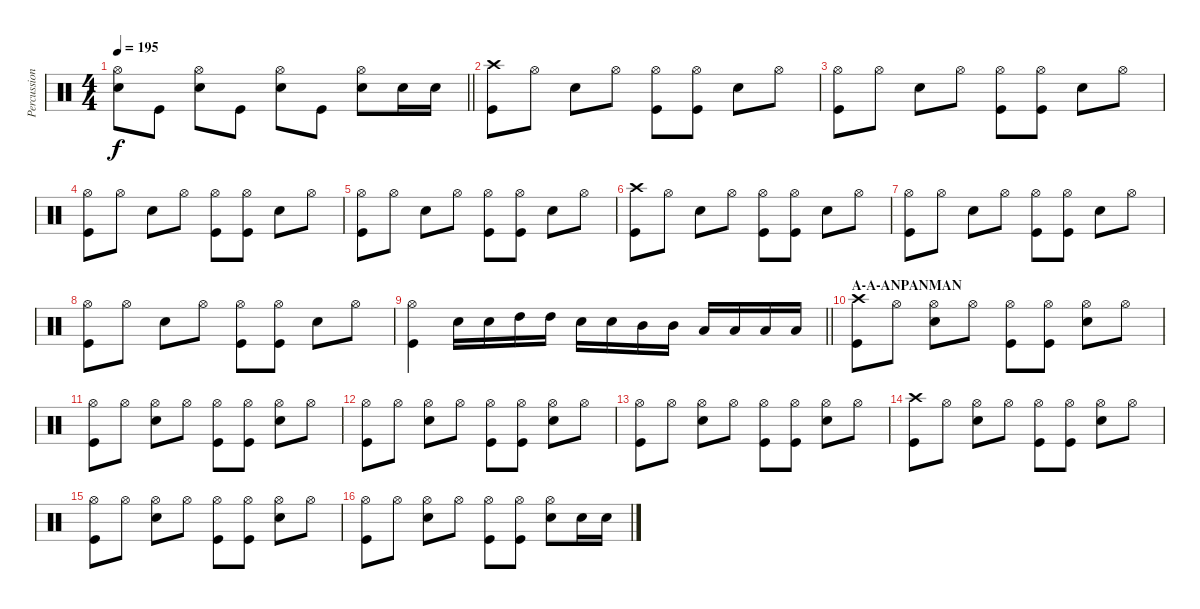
\track ("Percussion" "Percussion") {instrument percussion}
\staff {score}
\articulation defaults
\ts (4 4)
\tempo 195
\clef neutral
\barLineRight lightlight
\ks c
("Hi-Hat (open)" "Snare (hit) 2").8{dy f} "Kick (hit)".8 ("Hi-Hat (open)" "Snare (hit) 2").8 "Kick (hit)".8 ("Hi-Hat (open)" "Snare (hit) 2").8 "Kick (hit)".8 ("Hi-Hat (open)" "Snare (hit) 2").8 "Snare (hit) 2".16 "Snare (hit) 2".16 |
\section ("" "")
("Crash high (hit)" "Kick (hit)").8 "Hi-Hat (open)".8 "Snare (hit) 2".8 "Hi-Hat (open)".8 ("Hi-Hat (open)" "Kick (hit)").8 ("Hi-Hat (open)" "Kick (hit)").8 "Snare (hit) 2".8 "Hi-Hat (open)".8 |
("Hi-Hat (open)" "Kick (hit)").8 "Hi-Hat (open)".8 "Snare (hit) 2".8 "Hi-Hat (open)".8 ("Hi-Hat (open)" "Kick (hit)").8 ("Hi-Hat (open)" "Kick (hit)").8 "Snare (hit) 2".8 "Hi-Hat (open)".8 |
("Hi-Hat (open)" "Kick (hit)").8 "Hi-Hat (open)".8 "Snare (hit) 2".8 "Hi-Hat (open)".8 ("Hi-Hat (open)" "Kick (hit)").8 ("Hi-Hat (open)" "Kick (hit)").8 "Snare (hit) 2".8 "Hi-Hat (open)".8 |
("Hi-Hat (open)" "Kick (hit)").8 "Hi-Hat (open)".8 "Snare (hit) 2".8 "Hi-Hat (open)".8 ("Hi-Hat (open)" "Kick (hit)").8 ("Hi-Hat (open)" "Kick (hit)").8 "Snare (hit) 2".8 "Hi-Hat (open)".8 |
("Crash high (hit)" "Kick (hit)").8 "Hi-Hat (open)".8 "Snare (hit) 2".8 "Hi-Hat (open)".8 ("Hi-Hat (open)" "Kick (hit)").8 ("Hi-Hat (open)" "Kick (hit)").8 "Snare (hit) 2".8 "Hi-Hat (open)".8 |
("Hi-Hat (open)" "Kick (hit)").8 "Hi-Hat (open)".8 "Snare (hit) 2".8 "Hi-Hat (open)".8 ("Hi-Hat (open)" "Kick (hit)").8 ("Hi-Hat (open)" "Kick (hit)").8 "Snare (hit) 2".8 "Hi-Hat (open)".8 |
("Hi-Hat (open)" "Kick (hit)").8 "Hi-Hat (open)".8 "Snare (hit) 2".8 "Hi-Hat (open)".8 ("Hi-Hat (open)" "Kick (hit)").8 ("Hi-Hat (open)" "Kick (hit)").8 "Snare (hit) 2".8 "Hi-Hat (open)".8 |
\barLineRight lightlight
("Hi-Hat (open)" "Kick (hit)").4 "Snare (hit) 2".16 "Snare (hit) 2".16 "High Tom (hit)".16 "High Tom (hit)".16 "Snare (hit) 2".16 "Snare (hit) 2".16 "Mid Tom (hit)".16 "Mid Tom (hit)".16 "Low Tom (hit)".16 "Low Tom (hit)".16 "Low Floor Tom (hit)".16 "Low Floor Tom (hit)".16 |
\section ("" "A-A-ANPANMAN")
("Crash high (hit)" "Kick (hit)").8 "Hi-Hat (open)".8 ("Hi-Hat (open)" "Snare (hit) 2").8 "Hi-Hat (open)".8 ("Hi-Hat (open)" "Kick (hit)").8 ("Hi-Hat (open)" "Kick (hit)").8 ("Hi-Hat (open)" "Snare (hit) 2").8 "Hi-Hat (open)".8 |
("Hi-Hat (open)" "Kick (hit)").8 "Hi-Hat (open)".8 ("Hi-Hat (open)" "Snare (hit) 2").8 "Hi-Hat (open)".8 ("Hi-Hat (open)" "Kick (hit)").8 ("Hi-Hat (open)" "Kick (hit)").8 ("Hi-Hat (open)" "Snare (hit) 2").8 "Hi-Hat (open)".8 |
("Hi-Hat (open)" "Kick (hit)").8 "Hi-Hat (open)".8 ("Hi-Hat (open)" "Snare (hit) 2").8 "Hi-Hat (open)".8 ("Hi-Hat (open)" "Kick (hit)").8 ("Hi-Hat (open)" "Kick (hit)").8 ("Hi-Hat (open)" "Snare (hit) 2").8 "Hi-Hat (open)".8 |
("Hi-Hat (open)" "Kick (hit)").8 "Hi-Hat (open)".8 ("Hi-Hat (open)" "Snare (hit) 2").8 "Hi-Hat (open)".8 ("Hi-Hat (open)" "Kick (hit)").8 ("Hi-Hat (open)" "Kick (hit)").8 ("Hi-Hat (open)" "Snare (hit) 2").8 "Hi-Hat (open)".8 |
("Crash high (hit)" "Kick (hit)").8 "Hi-Hat (open)".8 ("Hi-Hat (open)" "Snare (hit) 2").8 "Hi-Hat (open)".8 ("Hi-Hat (open)" "Kick (hit)").8 ("Hi-Hat (open)" "Kick (hit)").8 ("Hi-Hat (open)" "Snare (hit) 2").8 "Hi-Hat (open)".8 |
("Hi-Hat (open)" "Kick (hit)").8 "Hi-Hat (open)".8 ("Hi-Hat (open)" "Snare (hit) 2").8 "Hi-Hat (open)".8 ("Hi-Hat (open)" "Kick (hit)").8 ("Hi-Hat (open)" "Kick (hit)").8 ("Hi-Hat (open)" "Snare (hit) 2").8 "Hi-Hat (open)".8 |
("Hi-Hat (open)" "Kick (hit)").8 "Hi-Hat (open)".8 ("Hi-Hat (open)" "Snare (hit) 2").8 "Hi-Hat (open)".8 ("Hi-Hat (open)" "Kick (hit)").8 ("Hi-Hat (open)" "Kick (hit)").8 ("Hi-Hat (open)" "Snare (hit) 2").8 "Snare (hit) 2".16 "Snare (hit) 2".16
